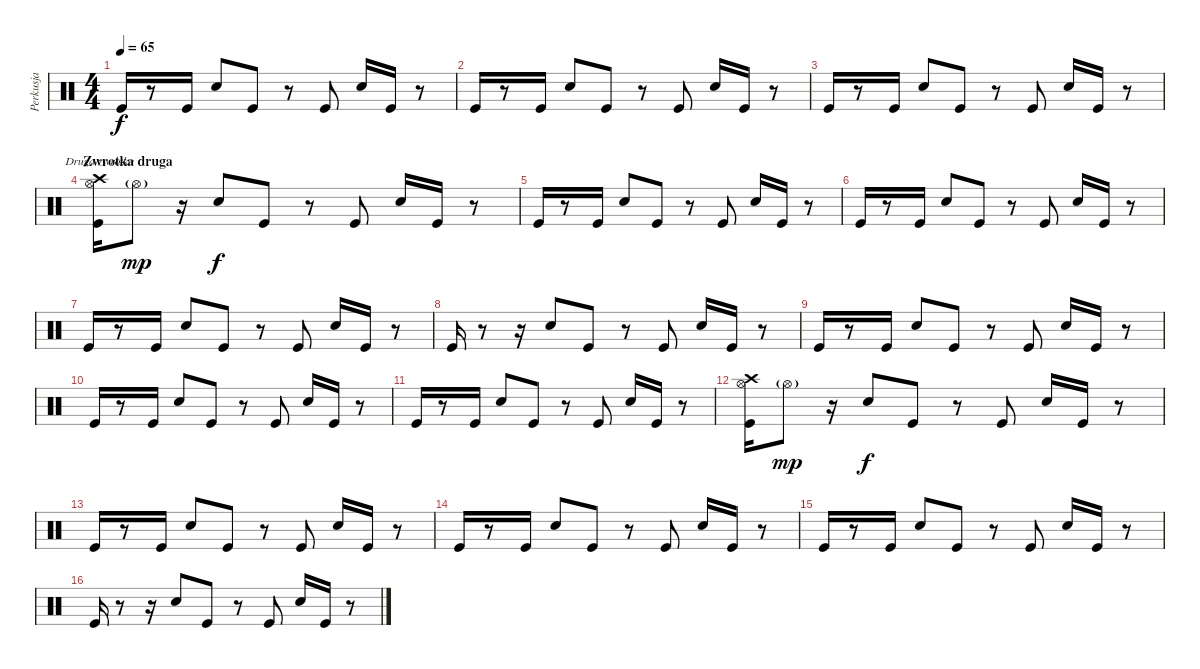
\track ("Perkusja" "Perkusja") {instrument percussion}
\staff {score}
\articulation defaults
\chord ("Druga zwrotka")
\ts (4 4)
\tempo 65
\clef neutral
\ks c "Kick (hit)".16{dy f}
r.8 "Kick (hit)".16 "Snare (hit) 2".8 "Kick (hit)".8 r.8 "Kick (hit)".8 "Snare (hit) 2".16 "Kick (hit)".16 r.8 |
"Kick (hit)".16 r.8 "Kick (hit)".16 "Snare (hit) 2".8 "Kick (hit)".8 r.8 "Kick (hit)".8 "Snare (hit) 2".16 "Kick (hit)".16 r.8 |
"Kick (hit)".16 r.8 "Kick (hit)".16 "Snare (hit) 2".8 "Kick (hit)".8 r.8 "Kick (hit)".8 "Snare (hit) 2".16 "Kick (hit)".16 r.8 |
\section ("" "Zwrotka druga")
("Kick (hit)" "Hi-Hat (open)" "Crash high (hit)").16{ch "Druga zwrotka"} "Hi-Hat (open)"{g}.8{dy mp} r.16 "Snare (hit) 2".8{dy f} "Kick (hit)".8 r.8 "Kick (hit)".8 "Snare (hit) 2".16 "Kick (hit)".16 r.8 |
"Kick (hit)".16 r.8 "Kick (hit)".16 "Snare (hit) 2".8 "Kick (hit)".8 r.8 "Kick (hit)".8 "Snare (hit) 2".16 "Kick (hit)".16 r.8 |
"Kick (hit)".16 r.8 "Kick (hit)".16 "Snare (hit) 2".8 "Kick (hit)".8 r.8 "Kick (hit)".8 "Snare (hit) 2".16 "Kick (hit)".16 r.8 |
"Kick (hit)".16 r.8 "Kick (hit)".16 "Snare (hit) 2".8 "Kick (hit)".8 r.8 "Kick (hit)".8 "Snare (hit) 2".16 "Kick (hit)".16 r.8 |
"Kick (hit)".16 r.8 r.16 "Snare (hit) 2".8 "Kick (hit)".8 r.8 "Kick (hit)".8 "Snare (hit) 2".16 "Kick (hit)".16 r.8 |
"Kick (hit)".16 r.8 "Kick (hit)".16 "Snare (hit) 2".8 "Kick (hit)".8 r.8 "Kick (hit)".8 "Snare (hit) 2".16 "Kick (hit)".16 r.8 |
"Kick (hit)".16 r.8 "Kick (hit)".16 "Snare (hit) 2".8 "Kick (hit)".8 r.8 "Kick (hit)".8 "Snare (hit) 2".16 "Kick (hit)".16 r.8 |
"Kick (hit)".16 r.8 "Kick (hit)".16 "Snare (hit) 2".8 "Kick (hit)".8 r.8 "Kick (hit)".8 "Snare (hit) 2".16 "Kick (hit)".16 r.8 |
("Kick (hit)" "Hi-Hat (open)" "Crash high (hit)").16 "Hi-Hat (open)"{g}.8{dy mp} r.16 "Snare (hit) 2".8{dy f} "Kick (hit)".8 r.8 "Kick (hit)".8 "Snare (hit) 2".16 "Kick (hit)".16 r.8 |
"Kick (hit)".16 r.8 "Kick (hit)".16 "Snare (hit) 2".8 "Kick (hit)".8 r.8 "Kick (hit)".8 "Snare (hit) 2".16 "Kick (hit)".16 r.8 |
"Kick (hit)".16 r.8 "Kick (hit)".16 "Snare (hit) 2".8 "Kick (hit)".8 r.8 "Kick (hit)".8 "Snare (hit) 2".16 "Kick (hit)".16 r.8 |
"Kick (hit)".16 r.8 "Kick (hit)".16 "Snare (hit) 2".8 "Kick (hit)".8 r.8 "Kick (hit)".8 "Snare (hit) 2".16 "Kick (hit)".16 r.8 |
"Kick (hit)".16 r.8 r.16 "Snare (hit) 2".8 "Kick (hit)".8 r.8 "Kick (hit)".8 "Snare (hit) 2".16 "Kick (hit)".16 r.8
